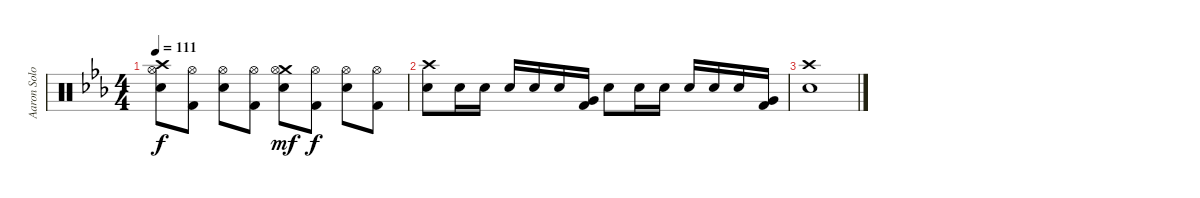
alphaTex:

\track ("Aaron Solowoniuk (Drums)" "Aaron Solo") {instrument percussion}
\staff {score}
\articulation defaults
\ts (4 4)
\tempo 111
\clef neutral
\ks cminor
("Crash high (hit)" "Hi-Hat (open)" "Snare (hit) 2").8{dy f} ("Hi-Hat (open)" "Kick (hit) 2").8 ("Hi-Hat (open)" "Snare (hit) 2").8 ("Hi-Hat (open)" "Kick (hit) 2").8 ("Crash medium (hit)" "Hi-Hat (open)" "Snare (hit) 2").8{dy mf} ("Hi-Hat (open)" "Kick (hit) 2").8{dy f} ("Hi-Hat (open)" "Snare (hit) 2").8 ("Hi-Hat (open)" "Kick (hit) 2").8 |
("Crash high (hit)" "Snare (hit) 2").8 "Snare (hit) 2".16 "Snare (hit) 2".16 "Snare (hit) 2".16 "Snare (hit) 2".16 "Snare (hit) 2".16 ("Very Low Tom (hit)" "Kick (hit) 2").16 "Snare (hit) 2".8 "Snare (hit) 2".16 "Snare (hit) 2".16 "Snare (hit) 2".16 "Snare (hit) 2".16 "Snare (hit) 2".16 ("Very Low Tom (hit)" "Kick (hit) 2").16 |
("Crash high (hit)" "Snare (hit) 2").1
